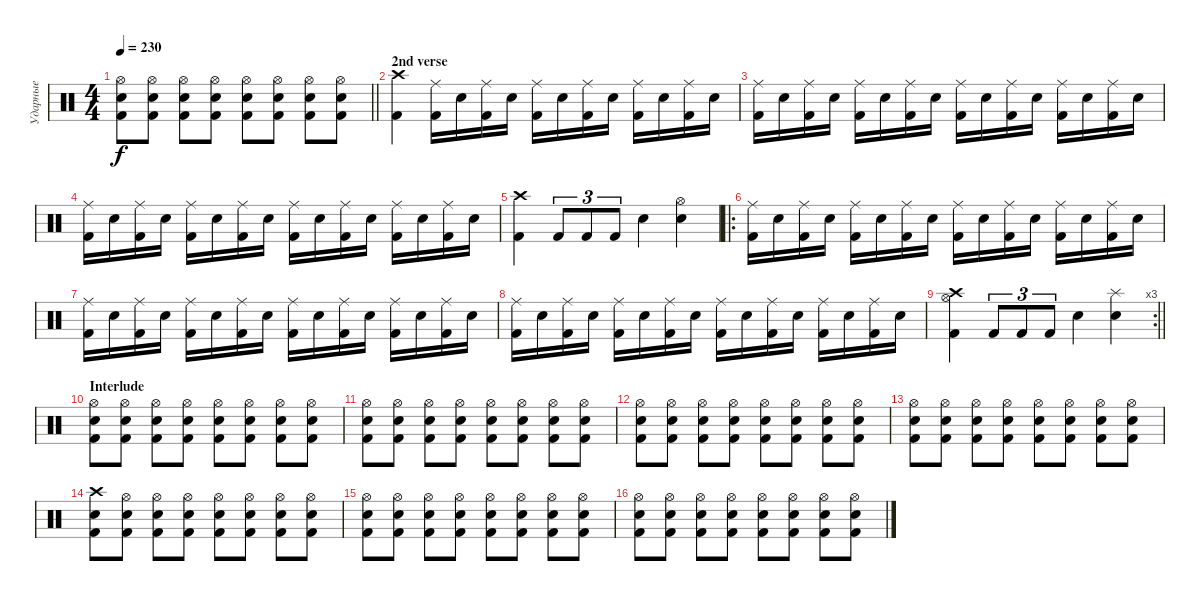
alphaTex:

\track ("Ударные" "Ударные") {instrument percussion}
\staff {score}
\articulation defaults
\ts (4 4)
\tempo 230
\clef neutral
\barLineRight lightlight
\ks c
("Hi-Hat (open)" "Snare (hit) 2" "Kick (hit) 2").8{dy f} ("Hi-Hat (open)" "Snare (hit) 2" "Kick (hit) 2").8 ("Hi-Hat (open)" "Snare (hit) 2" "Kick (hit) 2").8 ("Hi-Hat (open)" "Snare (hit) 2" "Kick (hit) 2").8 ("Hi-Hat (open)" "Snare (hit) 2" "Kick (hit) 2").8 ("Hi-Hat (open)" "Snare (hit) 2" "Kick (hit) 2").8 ("Hi-Hat (open)" "Snare (hit) 2" "Kick (hit) 2").8 ("Hi-Hat (open)" "Snare (hit) 2" "Kick (hit) 2").8 |
\section ("" "2nd verse")
("Crash high (hit)" "Kick (hit) 2").4 ("Ride (middle)" "Kick (hit) 2").16 "Snare (hit) 2".16 ("Ride (middle)" "Kick (hit) 2").16 "Snare (hit) 2".16 ("Ride (middle)" "Kick (hit) 2").16 "Snare (hit) 2".16 ("Ride (middle)" "Kick (hit) 2").16 "Snare (hit) 2".16 ("Ride (middle)" "Kick (hit) 2").16 "Snare (hit) 2".16 ("Ride (middle)" "Kick (hit) 2").16 "Snare (hit) 2".16 |
("Ride (middle)" "Kick (hit) 2").16 "Snare (hit) 2".16 ("Ride (middle)" "Kick (hit) 2").16 "Snare (hit) 2".16 ("Ride (middle)" "Kick (hit) 2").16 "Snare (hit) 2".16 ("Ride (middle)" "Kick (hit) 2").16 "Snare (hit) 2".16 ("Ride (middle)" "Kick (hit) 2").16 "Snare (hit) 2".16 ("Ride (middle)" "Kick (hit) 2").16 "Snare (hit) 2".16 ("Ride (middle)" "Kick (hit) 2").16 "Snare (hit) 2".16 ("Ride (middle)" "Kick (hit) 2").16 "Snare (hit) 2".16 |
("Ride (middle)" "Kick (hit) 2").16 "Snare (hit) 2".16 ("Ride (middle)" "Kick (hit) 2").16 "Snare (hit) 2".16 ("Ride (middle)" "Kick (hit) 2").16 "Snare (hit) 2".16 ("Ride (middle)" "Kick (hit) 2").16 "Snare (hit) 2".16 ("Ride (middle)" "Kick (hit) 2").16 "Snare (hit) 2".16 ("Ride (middle)" "Kick (hit) 2").16 "Snare (hit) 2".16 ("Ride (middle)" "Kick (hit) 2").16 "Snare (hit) 2".16 ("Ride (middle)" "Kick (hit) 2").16 "Snare (hit) 2".16 |
("Crash high (hit)" "Kick (hit) 2").4 "Kick (hit) 2".8{tu (3 2)} "Kick (hit) 2".8{tu (3 2)} "Kick (hit) 2".8{tu (3 2)} "Snare (hit) 2".4 ("Hi-Hat (open)" "Snare (hit) 2").4 |
\ro
("Ride (middle)" "Kick (hit) 2").16 "Snare (hit) 2".16 ("Ride (middle)" "Kick (hit) 2").16 "Snare (hit) 2".16 ("Ride (middle)" "Kick (hit) 2").16 "Snare (hit) 2".16 ("Ride (middle)" "Kick (hit) 2").16 "Snare (hit) 2".16 ("Ride (middle)" "Kick (hit) 2").16 "Snare (hit) 2".16 ("Ride (middle)" "Kick (hit) 2").16 "Snare (hit) 2".16 ("Ride (middle)" "Kick (hit) 2").16 "Snare (hit) 2".16 ("Ride (middle)" "Kick (hit) 2").16 "Snare (hit) 2".16 |
("Ride (middle)" "Kick (hit) 2").16 "Snare (hit) 2".16 ("Ride (middle)" "Kick (hit) 2").16 "Snare (hit) 2".16 ("Ride (middle)" "Kick (hit) 2").16 "Snare (hit) 2".16 ("Ride (middle)" "Kick (hit) 2").16 "Snare (hit) 2".16 ("Ride (middle)" "Kick (hit) 2").16 "Snare (hit) 2".16 ("Ride (middle)" "Kick (hit) 2").16 "Snare (hit) 2".16 ("Ride (middle)" "Kick (hit) 2").16 "Snare (hit) 2".16 ("Ride (middle)" "Kick (hit) 2").16 "Snare (hit) 2".16 |
("Ride (middle)" "Kick (hit) 2").16 "Snare (hit) 2".16 ("Ride (middle)" "Kick (hit) 2").16 "Snare (hit) 2".16 ("Ride (middle)" "Kick (hit) 2").16 "Snare (hit) 2".16 ("Ride (middle)" "Kick (hit) 2").16 "Snare (hit) 2".16 ("Ride (middle)" "Kick (hit) 2").16 "Snare (hit) 2".16 ("Ride (middle)" "Kick (hit) 2").16 "Snare (hit) 2".16 ("Ride (middle)" "Kick (hit) 2").16 "Snare (hit) 2".16 ("Ride (middle)" "Kick (hit) 2").16 "Snare (hit) 2".16 |
\rc 3
\barLineRight lightlight
("Crash high (hit)" "Hi-Hat (open)" "Kick (hit) 2").4 "Kick (hit) 2".8{tu (3 2)} "Kick (hit) 2".8{tu (3 2)} "Kick (hit) 2".8{tu (3 2)} "Snare (hit) 2".4 ("Splash (hit)" "Snare (hit) 2").4 |
\section ("" "Interlude")
("Hi-Hat (open)" "Snare (hit) 2" "Kick (hit) 2").8 ("Hi-Hat (open)" "Snare (hit) 2" "Kick (hit) 2").8 ("Hi-Hat (open)" "Snare (hit) 2" "Kick (hit) 2").8 ("Hi-Hat (open)" "Snare (hit) 2" "Kick (hit) 2").8 ("Hi-Hat (open)" "Snare (hit) 2" "Kick (hit) 2").8 ("Hi-Hat (open)" "Snare (hit) 2" "Kick (hit) 2").8 ("Hi-Hat (open)" "Snare (hit) 2" "Kick (hit) 2").8 ("Hi-Hat (open)" "Snare (hit) 2" "Kick (hit) 2").8 |
("Hi-Hat (open)" "Snare (hit) 2" "Kick (hit) 2").8 ("Hi-Hat (open)" "Snare (hit) 2" "Kick (hit) 2").8 ("Hi-Hat (open)" "Snare (hit) 2" "Kick (hit) 2").8 ("Hi-Hat (open)" "Snare (hit) 2" "Kick (hit) 2").8 ("Hi-Hat (open)" "Snare (hit) 2" "Kick (hit) 2").8 ("Hi-Hat (open)" "Snare (hit) 2" "Kick (hit) 2").8 ("Hi-Hat (open)" "Snare (hit) 2" "Kick (hit) 2").8 ("Hi-Hat (open)" "Snare (hit) 2" "Kick (hit) 2").8 |
("Hi-Hat (open)" "Snare (hit) 2" "Kick (hit) 2").8 ("Hi-Hat (open)" "Snare (hit) 2" "Kick (hit) 2").8 ("Hi-Hat (open)" "Snare (hit) 2" "Kick (hit) 2").8 ("Hi-Hat (open)" "Snare (hit) 2" "Kick (hit) 2").8 ("Hi-Hat (open)" "Snare (hit) 2" "Kick (hit) 2").8 ("Hi-Hat (open)" "Snare (hit) 2" "Kick (hit) 2").8 ("Hi-Hat (open)" "Snare (hit) 2" "Kick (hit) 2").8 ("Hi-Hat (open)" "Snare (hit) 2" "Kick (hit) 2").8 |
("Hi-Hat (open)" "Snare (hit) 2" "Kick (hit) 2").8 ("Hi-Hat (open)" "Snare (hit) 2" "Kick (hit) 2").8 ("Hi-Hat (open)" "Snare (hit) 2" "Kick (hit) 2").8 ("Hi-Hat (open)" "Snare (hit) 2" "Kick (hit) 2").8 ("Hi-Hat (open)" "Snare (hit) 2" "Kick (hit) 2").8 ("Hi-Hat (open)" "Snare (hit) 2" "Kick (hit) 2").8 ("Hi-Hat (open)" "Snare (hit) 2" "Kick (hit) 2").8 ("Hi-Hat (open)" "Snare (hit) 2" "Kick (hit) 2").8 |
("Crash high (hit)" "Snare (hit) 2" "Kick (hit) 2").8 ("Hi-Hat (open)" "Snare (hit) 2" "Kick (hit) 2").8 ("Hi-Hat (open)" "Snare (hit) 2" "Kick (hit) 2").8 ("Hi-Hat (open)" "Snare (hit) 2" "Kick (hit) 2").8 ("Hi-Hat (open)" "Snare (hit) 2" "Kick (hit) 2").8 ("Hi-Hat (open)" "Snare (hit) 2" "Kick (hit) 2").8 ("Hi-Hat (open)" "Snare (hit) 2" "Kick (hit) 2").8 ("Hi-Hat (open)" "Snare (hit) 2" "Kick (hit) 2").8 |
("Hi-Hat (open)" "Snare (hit) 2" "Kick (hit) 2").8 ("Hi-Hat (open)" "Snare (hit) 2" "Kick (hit) 2").8 ("Hi-Hat (open)" "Snare (hit) 2" "Kick (hit) 2").8 ("Hi-Hat (open)" "Snare (hit) 2" "Kick (hit) 2").8 ("Hi-Hat (open)" "Snare (hit) 2" "Kick (hit) 2").8 ("Hi-Hat (open)" "Snare (hit) 2" "Kick (hit) 2").8 ("Hi-Hat (open)" "Snare (hit) 2" "Kick (hit) 2").8 ("Hi-Hat (open)" "Snare (hit) 2" "Kick (hit) 2").8 |
("Hi-Hat (open)" "Snare (hit) 2" "Kick (hit) 2").8 ("Hi-Hat (open)" "Snare (hit) 2" "Kick (hit) 2").8 ("Hi-Hat (open)" "Snare (hit) 2" "Kick (hit) 2").8 ("Hi-Hat (open)" "Snare (hit) 2" "Kick (hit) 2").8 ("Hi-Hat (open)" "Snare (hit) 2" "Kick (hit) 2").8 ("Hi-Hat (open)" "Snare (hit) 2" "Kick (hit) 2").8 ("Hi-Hat (open)" "Snare (hit) 2" "Kick (hit) 2").8 ("Hi-Hat (open)" "Snare (hit) 2" "Kick (hit) 2").8
